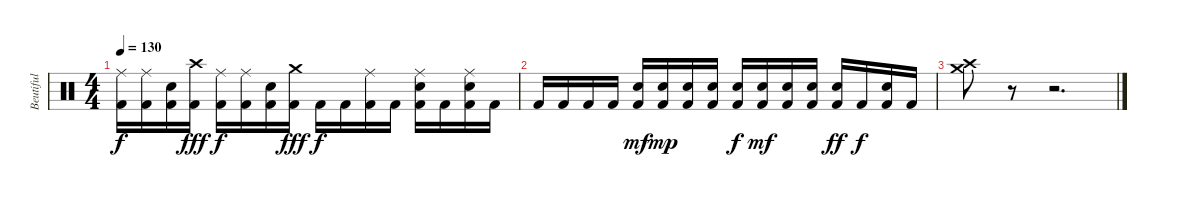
\track ("Beutiful" "Beutiful") {instrument percussion}
\staff {score}
\articulation defaults
\ts (4 4)
\tempo 130
\clef neutral
\ks c
("Ride (middle)" "Kick (hit) 2").16{dy f} ("Ride (middle)" "Kick (hit) 2").16 ("Electric Snare (hit)" "Kick (hit) 2").16 ("Crash high (hit)" "Kick (hit) 2").16{dy fff} ("Ride (middle)" "Kick (hit) 2").16{dy f} ("Ride (middle)" "Kick (hit) 2").16 ("Electric Snare (hit)" "Kick (hit) 2").16 ("Crash medium (hit)" "Kick (hit) 2").16{dy fff} "Kick (hit) 2".16{dy f} "Kick (hit) 2".16 ("Ride (middle)" "Kick (hit) 2").16 "Kick (hit) 2".16 ("Ride (middle)" "Electric Snare (hit)" "Kick (hit) 2").16 "Kick (hit) 2".16 ("Ride (middle)" "Electric Snare (hit)" "Kick (hit) 2").16 "Kick (hit) 2".16 |
"Kick (hit) 2".16 "Kick (hit) 2".16 "Kick (hit) 2".16 "Kick (hit) 2".16 ("Electric Snare (hit)" "Kick (hit) 2").16{dy mf} ("Electric Snare (hit)" "Kick (hit) 2").16{dy mp} ("Electric Snare (hit)" "Kick (hit) 2").16 ("Electric Snare (hit)" "Kick (hit) 2").16 ("Electric Snare (hit)" "Kick (hit) 2").16{dy f} ("Electric Snare (hit)" "Kick (hit) 2").16{dy mf} ("Electric Snare (hit)" "Kick (hit) 2").16 ("Electric Snare (hit)" "Kick (hit) 2").16 ("Electric Snare (hit)" "Kick (hit) 2").16{dy ff} "Kick (hit) 2".16{dy f} ("Electric Snare (hit)" "Kick (hit) 2").16 "Kick (hit) 2".16 |
("Crash high (hit)" "Crash medium (hit)").8 r.8 r.2{d}
